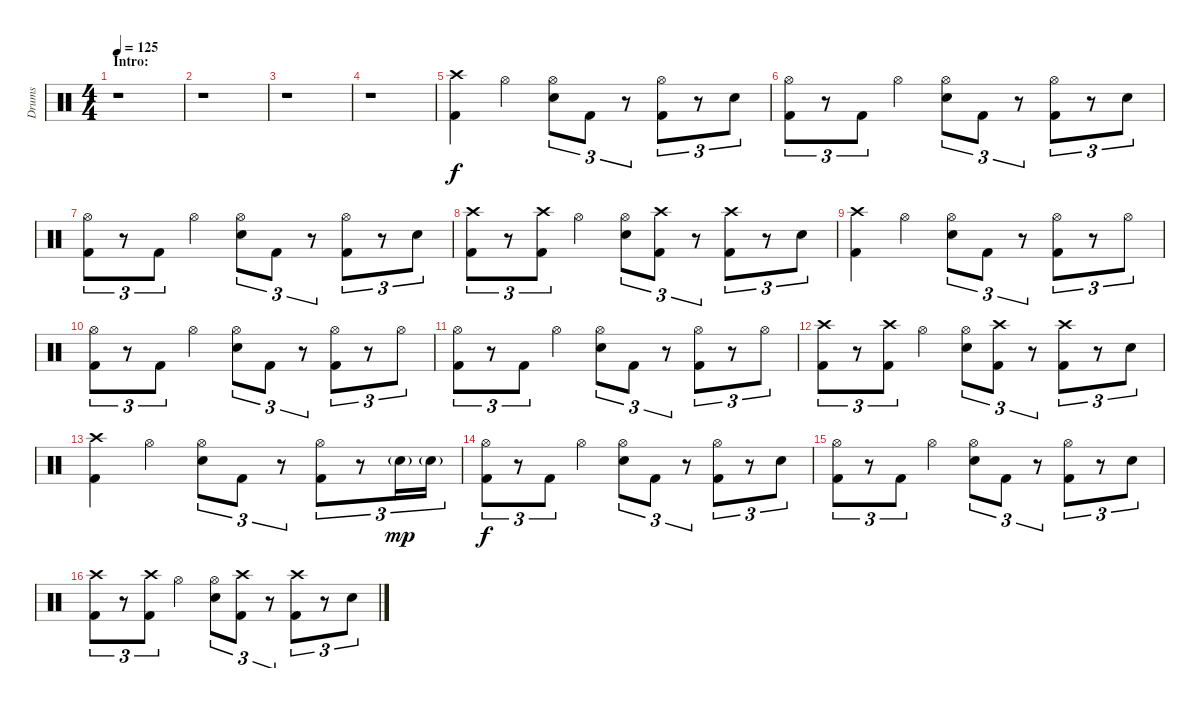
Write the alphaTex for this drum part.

\track ("Drums" "Drums") {instrument percussion}
\staff {score}
\articulation defaults
\ts (4 4)
\section ("" "Intro:")
\tempo 125
\clef neutral
\ks c
r.1{dy f} |
r.1 |
r.1 |
r.1 |
("Crash high (hit)" "Kick (hit) 2").4 "Hi-Hat (open)".4 ("Hi-Hat (open)" "Electric Snare (hit)").8{tu (3 2)} "Kick (hit) 2".8{tu (3 2)} r.8{tu (3 2)} ("Hi-Hat (open)" "Kick (hit) 2").8{tu (3 2)} r.8{tu (3 2)} "Electric Snare (hit)".8{tu (3 2)} |
("Hi-Hat (open)" "Kick (hit) 2").8{tu (3 2)} r.8{tu (3 2)} "Kick (hit) 2".8{tu (3 2)} "Hi-Hat (open)".4 ("Hi-Hat (open)" "Electric Snare (hit)").8{tu (3 2)} "Kick (hit) 2".8{tu (3 2)} r.8{tu (3 2)} ("Hi-Hat (open)" "Kick (hit) 2").8{tu (3 2)} r.8{tu (3 2)} "Electric Snare (hit)".8{tu (3 2)} |
("Hi-Hat (open)" "Kick (hit) 2").8{tu (3 2)} r.8{tu (3 2)} "Kick (hit) 2".8{tu (3 2)} "Hi-Hat (open)".4 ("Hi-Hat (open)" "Electric Snare (hit)").8{tu (3 2)} "Kick (hit) 2".8{tu (3 2)} r.8{tu (3 2)} ("Hi-Hat (open)" "Kick (hit) 2").8{tu (3 2)} r.8{tu (3 2)} "Electric Snare (hit)".8{tu (3 2)} |
("Crash high (hit)" "Kick (hit) 2").8{tu (3 2)} r.8{tu (3 2)} ("Crash high (hit)" "Kick (hit) 2").8{tu (3 2)} "Hi-Hat (open)".4 ("Hi-Hat (open)" "Electric Snare (hit)").8{tu (3 2)} ("Crash high (hit)" "Kick (hit) 2").8{tu (3 2)} r.8{tu (3 2)} ("Crash high (hit)" "Kick (hit) 2").8{tu (3 2)} r.8{tu (3 2)} "Electric Snare (hit)".8{tu (3 2)} |
("Crash high (hit)" "Kick (hit) 2").4 "Hi-Hat (open)".4 ("Hi-Hat (open)" "Electric Snare (hit)").8{tu (3 2)} "Kick (hit) 2".8{tu (3 2)} r.8{tu (3 2)} ("Hi-Hat (open)" "Kick (hit) 2").8{tu (3 2)} r.8{tu (3 2)} "Hi-Hat (open)".8{tu (3 2)} |
("Hi-Hat (open)" "Kick (hit) 2").8{tu (3 2)} r.8{tu (3 2)} "Kick (hit) 2".8{tu (3 2)} "Hi-Hat (open)".4 ("Hi-Hat (open)" "Electric Snare (hit)").8{tu (3 2)} "Kick (hit) 2".8{tu (3 2)} r.8{tu (3 2)} ("Hi-Hat (open)" "Kick (hit) 2").8{tu (3 2)} r.8{tu (3 2)} "Hi-Hat (open)".8{tu (3 2)} |
("Hi-Hat (open)" "Kick (hit) 2").8{tu (3 2)} r.8{tu (3 2)} "Kick (hit) 2".8{tu (3 2)} "Hi-Hat (open)".4 ("Hi-Hat (open)" "Electric Snare (hit)").8{tu (3 2)} "Kick (hit) 2".8{tu (3 2)} r.8{tu (3 2)} ("Hi-Hat (open)" "Kick (hit) 2").8{tu (3 2)} r.8{tu (3 2)} "Hi-Hat (open)".8{tu (3 2)} |
("Crash high (hit)" "Kick (hit) 2").8{tu (3 2)} r.8{tu (3 2)} ("Crash high (hit)" "Kick (hit) 2").8{tu (3 2)} "Hi-Hat (open)".4 ("Hi-Hat (open)" "Electric Snare (hit)").8{tu (3 2)} ("Crash high (hit)" "Kick (hit) 2").8{tu (3 2)} r.8{tu (3 2)} ("Crash high (hit)" "Kick (hit) 2").8{tu (3 2)} r.8{tu (3 2)} "Electric Snare (hit)".8{tu (3 2)} |
("Crash high (hit)" "Kick (hit) 2").4 "Hi-Hat (open)".4 ("Hi-Hat (open)" "Electric Snare (hit)").8{tu (3 2)} "Kick (hit) 2".8{tu (3 2)} r.8{tu (3 2)} ("Hi-Hat (open)" "Kick (hit) 2").8{tu (3 2)} r.8{tu (3 2)} "Electric Snare (hit)"{g}.16{tu (3 2) dy mp} "Electric Snare (hit)"{g}.16{tu (3 2)} |
("Hi-Hat (open)" "Kick (hit) 2").8{tu (3 2) dy f} r.8{tu (3 2)} "Kick (hit) 2".8{tu (3 2)} "Hi-Hat (open)".4 ("Hi-Hat (open)" "Electric Snare (hit)").8{tu (3 2)} "Kick (hit) 2".8{tu (3 2)} r.8{tu (3 2)} ("Hi-Hat (open)" "Kick (hit) 2").8{tu (3 2)} r.8{tu (3 2)} "Electric Snare (hit)".8{tu (3 2)} |
("Hi-Hat (open)" "Kick (hit) 2").8{tu (3 2)} r.8{tu (3 2)} "Kick (hit) 2".8{tu (3 2)} "Hi-Hat (open)".4 ("Hi-Hat (open)" "Electric Snare (hit)").8{tu (3 2)} "Kick (hit) 2".8{tu (3 2)} r.8{tu (3 2)} ("Hi-Hat (open)" "Kick (hit) 2").8{tu (3 2)} r.8{tu (3 2)} "Electric Snare (hit)".8{tu (3 2)} |
("Crash high (hit)" "Kick (hit) 2").8{tu (3 2)} r.8{tu (3 2)} ("Crash high (hit)" "Kick (hit) 2").8{tu (3 2)} "Hi-Hat (open)".4 ("Hi-Hat (open)" "Electric Snare (hit)").8{tu (3 2)} ("Crash high (hit)" "Kick (hit) 2").8{tu (3 2)} r.8{tu (3 2)} ("Crash high (hit)" "Kick (hit) 2").8{tu (3 2)} r.8{tu (3 2)} "Electric Snare (hit)".8{tu (3 2)}
